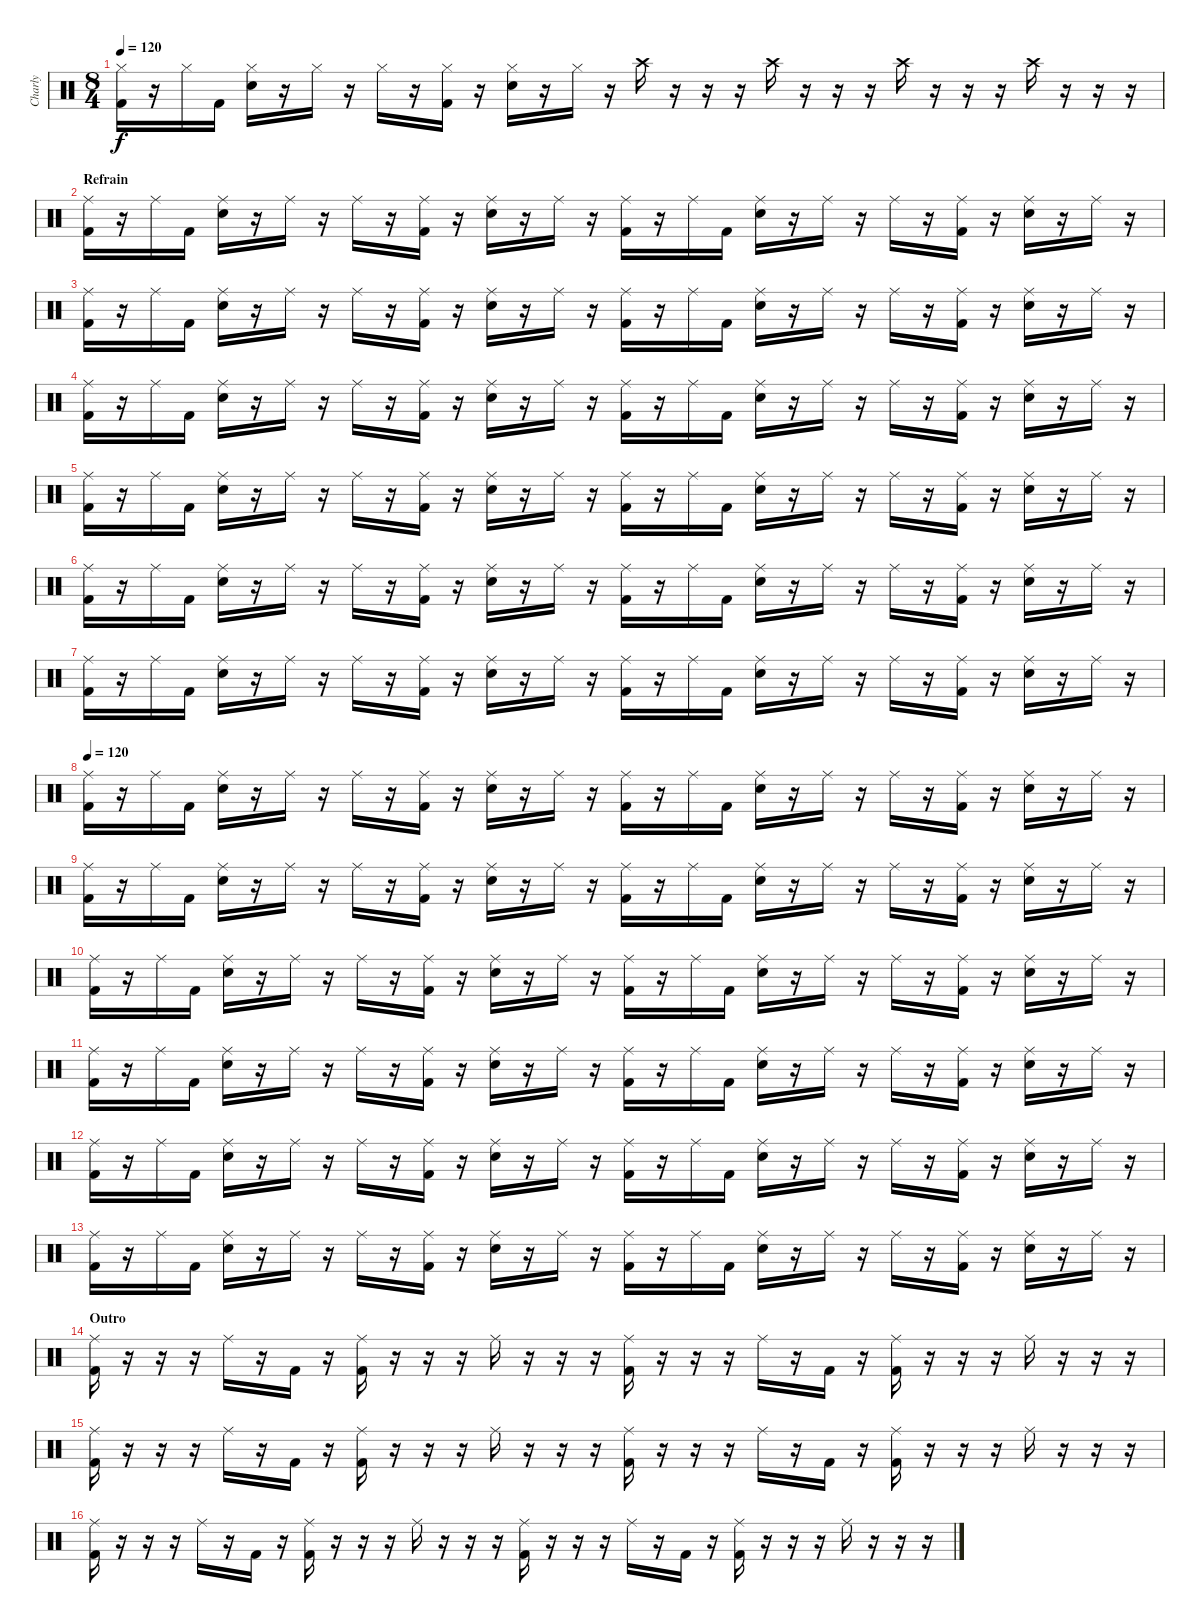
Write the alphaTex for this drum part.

\track ("Charly" "Charly") {instrument percussion}
\staff {score}
\articulation defaults
\ts (8 4)
\tempo 120
\clef neutral
\ks c
("Hi-Hat (closed)" "Kick (hit) 2").16{dy f} r.16 "Hi-Hat (closed)".16 "Kick (hit) 2".16 ("Hi-Hat (closed)" "Snare (hit) 2").16 r.16 "Hi-Hat (closed)".16 r.16 "Hi-Hat (closed)".16 r.16 ("Hi-Hat (closed)" "Kick (hit) 2").16 r.16 ("Hi-Hat (closed)" "Snare (hit) 2").16 r.16 "Hi-Hat (closed)".16 r.16 "Crash high (hit)".16 r.16 r.16 r.16 "Crash high (hit)".16 r.16 r.16 r.16 "Crash high (hit)".16 r.16 r.16 r.16 "Crash high (hit)".16 r.16 r.16 r.16 |
\section ("" "Refrain")
("Ride (middle)" "Kick (hit) 2").16 r.16 "Ride (middle)".16 "Kick (hit) 2".16 ("Ride (middle)" "Snare (hit) 2").16 r.16 "Ride (middle)".16 r.16 "Ride (middle)".16 r.16 ("Ride (middle)" "Kick (hit) 2").16 r.16 ("Ride (middle)" "Snare (hit) 2").16 r.16 "Ride (middle)".16 r.16 ("Ride (middle)" "Kick (hit) 2").16 r.16 "Ride (middle)".16 "Kick (hit) 2".16 ("Ride (middle)" "Snare (hit) 2").16 r.16 "Ride (middle)".16 r.16 "Ride (middle)".16 r.16 ("Ride (middle)" "Kick (hit) 2").16 r.16 ("Ride (middle)" "Snare (hit) 2").16 r.16 "Ride (middle)".16 r.16 |
("Ride (middle)" "Kick (hit) 2").16 r.16 "Ride (middle)".16 "Kick (hit) 2".16 ("Ride (middle)" "Snare (hit) 2").16 r.16 "Ride (middle)".16 r.16 "Ride (middle)".16 r.16 ("Ride (middle)" "Kick (hit) 2").16 r.16 ("Ride (middle)" "Snare (hit) 2").16 r.16 "Ride (middle)".16 r.16 ("Ride (middle)" "Kick (hit) 2").16 r.16 "Ride (middle)".16 "Kick (hit) 2".16 ("Ride (middle)" "Snare (hit) 2").16 r.16 "Ride (middle)".16 r.16 "Ride (middle)".16 r.16 ("Ride (middle)" "Kick (hit) 2").16 r.16 ("Ride (middle)" "Snare (hit) 2").16 r.16 "Ride (middle)".16 r.16 |
("Ride (middle)" "Kick (hit) 2").16 r.16 "Ride (middle)".16 "Kick (hit) 2".16 ("Ride (middle)" "Snare (hit) 2").16 r.16 "Ride (middle)".16 r.16 "Ride (middle)".16 r.16 ("Ride (middle)" "Kick (hit) 2").16 r.16 ("Ride (middle)" "Snare (hit) 2").16 r.16 "Ride (middle)".16 r.16 ("Ride (middle)" "Kick (hit) 2").16 r.16 "Ride (middle)".16 "Kick (hit) 2".16 ("Ride (middle)" "Snare (hit) 2").16 r.16 "Ride (middle)".16 r.16 "Ride (middle)".16 r.16 ("Ride (middle)" "Kick (hit) 2").16 r.16 ("Ride (middle)" "Snare (hit) 2").16 r.16 "Ride (middle)".16 r.16 |
("Ride (middle)" "Kick (hit) 2").16 r.16 "Ride (middle)".16 "Kick (hit) 2".16 ("Ride (middle)" "Snare (hit) 2").16 r.16 "Ride (middle)".16 r.16 "Ride (middle)".16 r.16 ("Ride (middle)" "Kick (hit) 2").16 r.16 ("Ride (middle)" "Snare (hit) 2").16 r.16 "Ride (middle)".16 r.16 ("Ride (middle)" "Kick (hit) 2").16 r.16 "Ride (middle)".16 "Kick (hit) 2".16 ("Ride (middle)" "Snare (hit) 2").16 r.16 "Ride (middle)".16 r.16 "Ride (middle)".16 r.16 ("Ride (middle)" "Kick (hit) 2").16 r.16 ("Ride (middle)" "Snare (hit) 2").16 r.16 "Ride (middle)".16 r.16 |
("Ride (middle)" "Kick (hit) 2").16 r.16 "Ride (middle)".16 "Kick (hit) 2".16 ("Ride (middle)" "Snare (hit) 2").16 r.16 "Ride (middle)".16 r.16 "Ride (middle)".16 r.16 ("Ride (middle)" "Kick (hit) 2").16 r.16 ("Ride (middle)" "Snare (hit) 2").16 r.16 "Ride (middle)".16 r.16 ("Ride (middle)" "Kick (hit) 2").16 r.16 "Ride (middle)".16 "Kick (hit) 2".16 ("Ride (middle)" "Snare (hit) 2").16 r.16 "Ride (middle)".16 r.16 "Ride (middle)".16 r.16 ("Ride (middle)" "Kick (hit) 2").16 r.16 ("Ride (middle)" "Snare (hit) 2").16 r.16 "Ride (middle)".16 r.16 |
("Ride (middle)" "Kick (hit) 2").16 r.16 "Ride (middle)".16 "Kick (hit) 2".16 ("Ride (middle)" "Snare (hit) 2").16 r.16 "Ride (middle)".16 r.16 "Ride (middle)".16 r.16 ("Ride (middle)" "Kick (hit) 2").16 r.16 ("Ride (middle)" "Snare (hit) 2").16 r.16 "Ride (middle)".16 r.16 ("Ride (middle)" "Kick (hit) 2").16 r.16 "Ride (middle)".16 "Kick (hit) 2".16 ("Ride (middle)" "Snare (hit) 2").16 r.16 "Ride (middle)".16 r.16 "Ride (middle)".16 r.16 ("Ride (middle)" "Kick (hit) 2").16 r.16 ("Ride (middle)" "Snare (hit) 2").16 r.16 "Ride (middle)".16 r.16 |
\tempo 120
("Ride (middle)" "Kick (hit) 2").16 r.16 "Ride (middle)".16 "Kick (hit) 2".16 ("Ride (middle)" "Snare (hit) 2").16 r.16 "Ride (middle)".16 r.16 "Ride (middle)".16 r.16 ("Ride (middle)" "Kick (hit) 2").16 r.16 ("Ride (middle)" "Snare (hit) 2").16 r.16 "Ride (middle)".16 r.16 ("Ride (middle)" "Kick (hit) 2").16 r.16 "Ride (middle)".16 "Kick (hit) 2".16 ("Ride (middle)" "Snare (hit) 2").16 r.16 "Ride (middle)".16 r.16 "Ride (middle)".16 r.16 ("Ride (middle)" "Kick (hit) 2").16 r.16 ("Ride (middle)" "Snare (hit) 2").16 r.16 "Ride (middle)".16 r.16 |
("Ride (middle)" "Kick (hit) 2").16 r.16 "Ride (middle)".16 "Kick (hit) 2".16 ("Ride (middle)" "Snare (hit) 2").16 r.16 "Ride (middle)".16 r.16 "Ride (middle)".16 r.16 ("Ride (middle)" "Kick (hit) 2").16 r.16 ("Ride (middle)" "Snare (hit) 2").16 r.16 "Ride (middle)".16 r.16 ("Ride (middle)" "Kick (hit) 2").16 r.16 "Ride (middle)".16 "Kick (hit) 2".16 ("Ride (middle)" "Snare (hit) 2").16 r.16 "Ride (middle)".16 r.16 "Ride (middle)".16 r.16 ("Ride (middle)" "Kick (hit) 2").16 r.16 ("Ride (middle)" "Snare (hit) 2").16 r.16 "Ride (middle)".16 r.16 |
("Ride (middle)" "Kick (hit) 2").16 r.16 "Ride (middle)".16 "Kick (hit) 2".16 ("Ride (middle)" "Snare (hit) 2").16 r.16 "Ride (middle)".16 r.16 "Ride (middle)".16 r.16 ("Ride (middle)" "Kick (hit) 2").16 r.16 ("Ride (middle)" "Snare (hit) 2").16 r.16 "Ride (middle)".16 r.16 ("Ride (middle)" "Kick (hit) 2").16 r.16 "Ride (middle)".16 "Kick (hit) 2".16 ("Ride (middle)" "Snare (hit) 2").16 r.16 "Ride (middle)".16 r.16 "Ride (middle)".16 r.16 ("Ride (middle)" "Kick (hit) 2").16 r.16 ("Ride (middle)" "Snare (hit) 2").16 r.16 "Ride (middle)".16 r.16 |
("Ride (middle)" "Kick (hit) 2").16 r.16 "Ride (middle)".16 "Kick (hit) 2".16 ("Ride (middle)" "Snare (hit) 2").16 r.16 "Ride (middle)".16 r.16 "Ride (middle)".16 r.16 ("Ride (middle)" "Kick (hit) 2").16 r.16 ("Ride (middle)" "Snare (hit) 2").16 r.16 "Ride (middle)".16 r.16 ("Ride (middle)" "Kick (hit) 2").16 r.16 "Ride (middle)".16 "Kick (hit) 2".16 ("Ride (middle)" "Snare (hit) 2").16 r.16 "Ride (middle)".16 r.16 "Ride (middle)".16 r.16 ("Ride (middle)" "Kick (hit) 2").16 r.16 ("Ride (middle)" "Snare (hit) 2").16 r.16 "Ride (middle)".16 r.16 |
("Ride (middle)" "Kick (hit) 2").16 r.16 "Ride (middle)".16 "Kick (hit) 2".16 ("Ride (middle)" "Snare (hit) 2").16 r.16 "Ride (middle)".16 r.16 "Ride (middle)".16 r.16 ("Ride (middle)" "Kick (hit) 2").16 r.16 ("Ride (middle)" "Snare (hit) 2").16 r.16 "Ride (middle)".16 r.16 ("Ride (middle)" "Kick (hit) 2").16 r.16 "Ride (middle)".16 "Kick (hit) 2".16 ("Ride (middle)" "Snare (hit) 2").16 r.16 "Ride (middle)".16 r.16 "Ride (middle)".16 r.16 ("Ride (middle)" "Kick (hit) 2").16 r.16 ("Ride (middle)" "Snare (hit) 2").16 r.16 "Ride (middle)".16 r.16 |
("Ride (middle)" "Kick (hit) 2").16 r.16 "Ride (middle)".16 "Kick (hit) 2".16 ("Ride (middle)" "Snare (hit) 2").16 r.16 "Ride (middle)".16 r.16 "Ride (middle)".16 r.16 ("Ride (middle)" "Kick (hit) 2").16 r.16 ("Ride (middle)" "Snare (hit) 2").16 r.16 "Ride (middle)".16 r.16 ("Ride (middle)" "Kick (hit) 2").16 r.16 "Ride (middle)".16 "Kick (hit) 2".16 ("Ride (middle)" "Snare (hit) 2").16 r.16 "Ride (middle)".16 r.16 "Ride (middle)".16 r.16 ("Ride (middle)" "Kick (hit) 2").16 r.16 ("Ride (middle)" "Snare (hit) 2").16 r.16 "Ride (middle)".16 r.16 |
\section ("" "Outro")
("Ride (middle)" "Kick (hit) 2").16 r.16 r.16 r.16 "Ride (middle)".16 r.16 "Kick (hit) 2".16 r.16 ("Ride (middle)" "Kick (hit) 2").16 r.16 r.16 r.16 "Ride (middle)".16 r.16 r.16 r.16 ("Ride (middle)" "Kick (hit) 2").16 r.16 r.16 r.16 "Ride (middle)".16 r.16 "Kick (hit) 2".16 r.16 ("Ride (middle)" "Kick (hit) 2").16 r.16 r.16 r.16 "Ride (middle)".16 r.16 r.16 r.16 |
("Ride (middle)" "Kick (hit) 2").16 r.16 r.16 r.16 "Ride (middle)".16 r.16 "Kick (hit) 2".16 r.16 ("Ride (middle)" "Kick (hit) 2").16 r.16 r.16 r.16 "Ride (middle)".16 r.16 r.16 r.16 ("Ride (middle)" "Kick (hit) 2").16 r.16 r.16 r.16 "Ride (middle)".16 r.16 "Kick (hit) 2".16 r.16 ("Ride (middle)" "Kick (hit) 2").16 r.16 r.16 r.16 "Ride (middle)".16 r.16 r.16 r.16 |
("Ride (middle)" "Kick (hit) 2").16 r.16 r.16 r.16 "Ride (middle)".16 r.16 "Kick (hit) 2".16 r.16 ("Ride (middle)" "Kick (hit) 2").16 r.16 r.16 r.16 "Ride (middle)".16 r.16 r.16 r.16 ("Ride (middle)" "Kick (hit) 2").16 r.16 r.16 r.16 "Ride (middle)".16 r.16 "Kick (hit) 2".16 r.16 ("Ride (middle)" "Kick (hit) 2").16 r.16 r.16 r.16 "Ride (middle)".16 r.16 r.16 r.16
